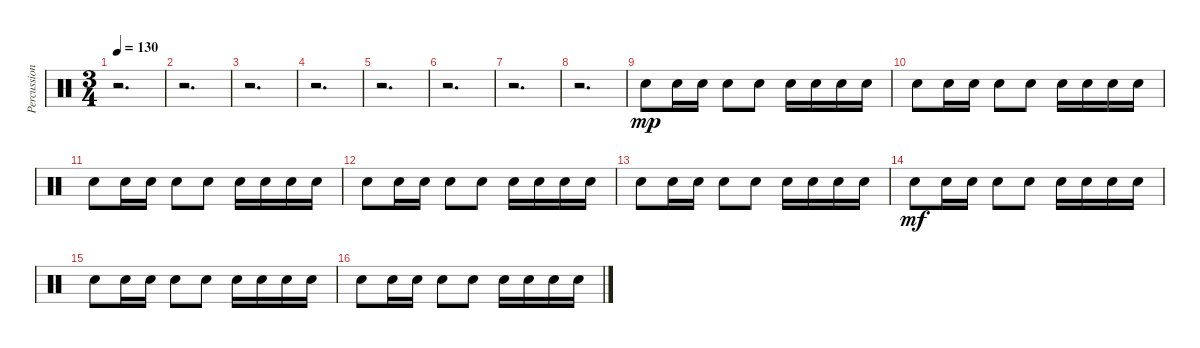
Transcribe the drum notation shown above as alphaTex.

\track ("Percussion" "Percussion") {instrument percussion}
\staff {score}
\articulation defaults
\ts (3 4)
\tempo 130
\clef neutral
\ks c
r.2{d dy mp} |
r.2{d} |
r.2{d} |
r.2{d} |
r.2{d} |
r.2{d} |
r.2{d} |
r.2{d} |
"Electric Snare (hit)".8{volume 16} "Electric Snare (hit)".16 "Electric Snare (hit)".16 "Electric Snare (hit)".8 "Electric Snare (hit)".8 "Electric Snare (hit)".16 "Electric Snare (hit)".16 "Electric Snare (hit)".16 "Electric Snare (hit)".16 |
"Electric Snare (hit)".8 "Electric Snare (hit)".16 "Electric Snare (hit)".16 "Electric Snare (hit)".8 "Electric Snare (hit)".8 "Electric Snare (hit)".16 "Electric Snare (hit)".16 "Electric Snare (hit)".16 "Electric Snare (hit)".16 |
"Electric Snare (hit)".8 "Electric Snare (hit)".16 "Electric Snare (hit)".16 "Electric Snare (hit)".8 "Electric Snare (hit)".8 "Electric Snare (hit)".16 "Electric Snare (hit)".16 "Electric Snare (hit)".16 "Electric Snare (hit)".16 |
"Electric Snare (hit)".8 "Electric Snare (hit)".16 "Electric Snare (hit)".16 "Electric Snare (hit)".8 "Electric Snare (hit)".8 "Electric Snare (hit)".16 "Electric Snare (hit)".16 "Electric Snare (hit)".16 "Electric Snare (hit)".16 |
"Electric Snare (hit)".8 "Electric Snare (hit)".16 "Electric Snare (hit)".16 "Electric Snare (hit)".8 "Electric Snare (hit)".8 "Electric Snare (hit)".16 "Electric Snare (hit)".16 "Electric Snare (hit)".16 "Electric Snare (hit)".16 |
"Electric Snare (hit)".8{dy mf} "Electric Snare (hit)".16 "Electric Snare (hit)".16 "Electric Snare (hit)".8 "Electric Snare (hit)".8 "Electric Snare (hit)".16 "Electric Snare (hit)".16 "Electric Snare (hit)".16 "Electric Snare (hit)".16 |
"Electric Snare (hit)".8 "Electric Snare (hit)".16 "Electric Snare (hit)".16 "Electric Snare (hit)".8 "Electric Snare (hit)".8 "Electric Snare (hit)".16 "Electric Snare (hit)".16 "Electric Snare (hit)".16 "Electric Snare (hit)".16 |
"Electric Snare (hit)".8 "Electric Snare (hit)".16 "Electric Snare (hit)".16 "Electric Snare (hit)".8 "Electric Snare (hit)".8 "Electric Snare (hit)".16 "Electric Snare (hit)".16 "Electric Snare (hit)".16 "Electric Snare (hit)".16
